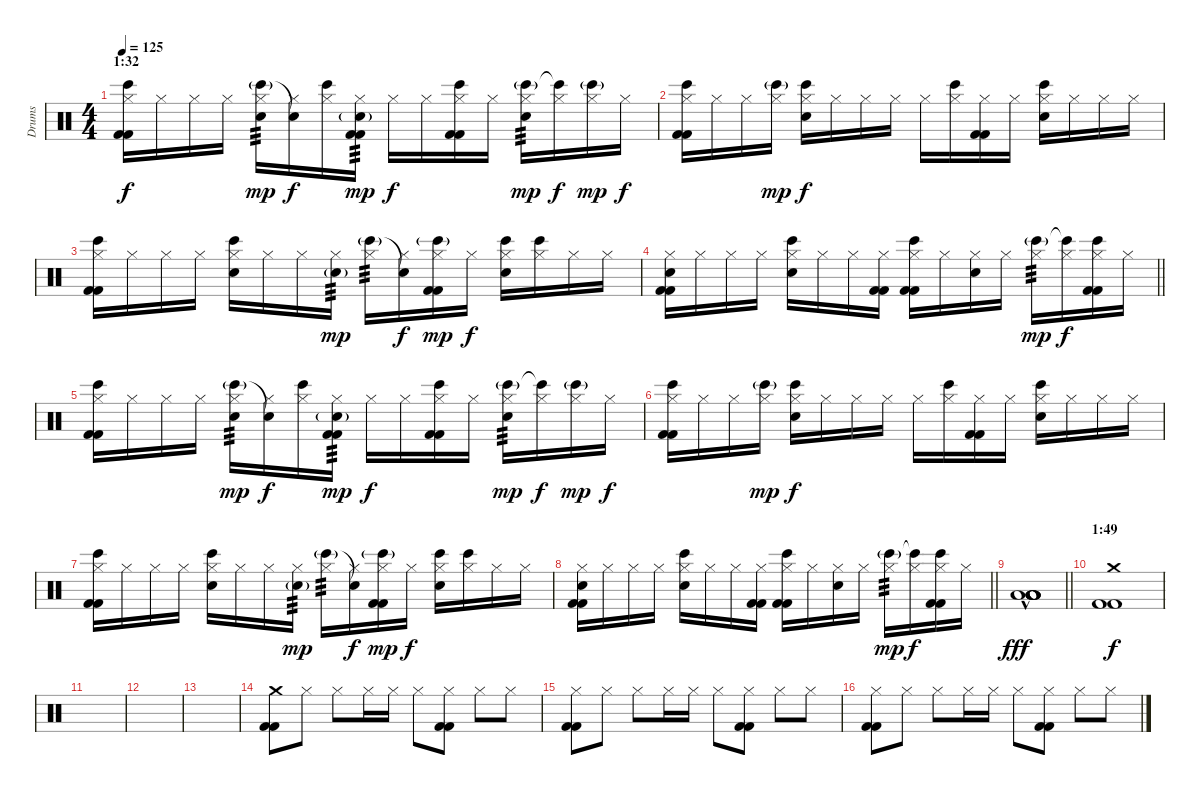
\track ("Drums" "Drums") {instrument percussion}
\staff {score}
\articulation defaults
\ts (4 4)
\section ("" "1:32")
\tempo 125
\clef neutral
\ks c
("Bongo High (hit)" "Hi-Hat (closed)" "Kick (hit) 2" "Kick (hit) 2").16{dy f} "Hi-Hat (closed)".16 "Hi-Hat (closed)".16 "Hi-Hat (closed)".16 ("Bongo High (hit)"{g} "Hi-Hat (closed)" "Electric Snare (hit)").16{tp 3 dy mp} ("Snare (hit)"{t} "Hi-Hat (closed)").16{dy f} ("Bongo High (hit)" "Hi-Hat (closed)").16 ("Hi-Hat (closed)" "Electric Snare (hit)"{g} "Kick (hit) 2" "Kick (hit) 2").16{tp 3 dy mp} "Hi-Hat (closed)".16{dy f} "Hi-Hat (closed)".16 ("Bongo High (hit)" "Hi-Hat (closed)" "Kick (hit) 2" "Kick (hit) 2").16 "Hi-Hat (closed)".16 ("Bongo High (hit)"{g} "Hi-Hat (closed)" "Electric Snare (hit)").16{tp 3 dy mp} ("Bongo High (hit)"{t} "Hi-Hat (closed)").16{dy f} ("Bongo High (hit)"{g} "Hi-Hat (closed)").16{dy mp} "Hi-Hat (closed)".16{dy f} |
("Bongo High (hit)" "Hi-Hat (closed)" "Kick (hit) 2" "Kick (hit) 2").16 "Hi-Hat (closed)".16 "Hi-Hat (closed)".16 ("Bongo High (hit)"{g} "Hi-Hat (closed)").16{dy mp} ("Bongo High (hit)" "Hi-Hat (closed)" "Electric Snare (hit)").16{dy f} "Hi-Hat (closed)".16 "Hi-Hat (closed)".16 "Hi-Hat (closed)".16 "Hi-Hat (closed)".16 ("Bongo High (hit)" "Hi-Hat (closed)").16 ("Hi-Hat (closed)" "Kick (hit) 2" "Kick (hit) 2").16 "Hi-Hat (closed)".16 ("Bongo High (hit)" "Hi-Hat (closed)" "Electric Snare (hit)").16 "Hi-Hat (closed)".16 "Hi-Hat (closed)".16 "Hi-Hat (closed)".16 |
("Bongo High (hit)" "Hi-Hat (closed)" "Kick (hit) 2" "Kick (hit) 2").16 "Hi-Hat (closed)".16 "Hi-Hat (closed)".16 "Hi-Hat (closed)".16 ("Bongo High (hit)" "Hi-Hat (closed)" "Electric Snare (hit)").16 "Hi-Hat (closed)".16 "Hi-Hat (closed)".16 ("Hi-Hat (closed)" "Electric Snare (hit)"{g}).16{tp 3 dy mp} ("Bongo High (hit)"{g} "Hi-Hat (closed)").16{tp 3} ("Snare (hit) 2"{t} "Hi-Hat (closed)").16{dy f} ("Bongo High (hit)"{g} "Hi-Hat (closed)" "Kick (hit) 2" "Kick (hit) 2").16{dy mp} "Hi-Hat (closed)".16{dy f} ("Bongo High (hit)" "Hi-Hat (closed)" "Electric Snare (hit)").16 ("Bongo High (hit)" "Hi-Hat (closed)").16 "Hi-Hat (closed)".16 "Hi-Hat (closed)".16 |
\barLineRight lightlight
("Hand Clap (hit)" "Hi-Hat (closed)" "Kick (hit) 2" "Kick (hit) 2").16 "Hi-Hat (closed)".16 "Hi-Hat (closed)".16 "Hi-Hat (closed)".16 ("Bongo High (hit)" "Hi-Hat (closed)" "Electric Snare (hit)").16 "Hi-Hat (closed)".16 "Hi-Hat (closed)".16 ("Hi-Hat (closed)" "Kick (hit) 2" "Kick (hit) 2").16 ("Bongo High (hit)" "Hi-Hat (closed)" "Kick (hit) 2" "Kick (hit) 2").16 "Hi-Hat (closed)".16 ("Hi-Hat (closed)" "Electric Snare (hit)").16 "Hi-Hat (closed)".16 ("Bongo High (hit)"{g} "Hi-Hat (closed)").16{tp 3 dy mp} ("Bongo High (hit)"{t} "Hi-Hat (closed)").16{dy f} ("Bongo High (hit)" "Hi-Hat (closed)" "Kick (hit) 2" "Kick (hit) 2").16 "Hi-Hat (closed)".16 |
("Bongo High (hit)" "Hi-Hat (closed)" "Kick (hit) 2" "Kick (hit) 2").16 "Hi-Hat (closed)".16 "Hi-Hat (closed)".16 "Hi-Hat (closed)".16 ("Bongo High (hit)"{g} "Hi-Hat (closed)" "Electric Snare (hit)").16{tp 3 dy mp} ("Snare (hit)"{t} "Hi-Hat (closed)").16{dy f} ("Bongo High (hit)" "Hi-Hat (closed)").16 ("Hi-Hat (closed)" "Electric Snare (hit)"{g} "Kick (hit) 2" "Kick (hit) 2").16{tp 3 dy mp} "Hi-Hat (closed)".16{dy f} "Hi-Hat (closed)".16 ("Bongo High (hit)" "Hi-Hat (closed)" "Kick (hit) 2" "Kick (hit) 2").16 "Hi-Hat (closed)".16 ("Bongo High (hit)"{g} "Hi-Hat (closed)" "Electric Snare (hit)").16{tp 3 dy mp} ("Bongo High (hit)"{t} "Hi-Hat (closed)").16{dy f} ("Bongo High (hit)"{g} "Hi-Hat (closed)").16{dy mp} "Hi-Hat (closed)".16{dy f} |
("Bongo High (hit)" "Hi-Hat (closed)" "Kick (hit) 2" "Kick (hit) 2").16 "Hi-Hat (closed)".16 "Hi-Hat (closed)".16 ("Bongo High (hit)"{g} "Hi-Hat (closed)").16{dy mp} ("Bongo High (hit)" "Hi-Hat (closed)" "Electric Snare (hit)").16{dy f} "Hi-Hat (closed)".16 "Hi-Hat (closed)".16 "Hi-Hat (closed)".16 "Hi-Hat (closed)".16 ("Bongo High (hit)" "Hi-Hat (closed)").16 ("Hi-Hat (closed)" "Kick (hit) 2" "Kick (hit) 2").16 "Hi-Hat (closed)".16 ("Bongo High (hit)" "Hi-Hat (closed)" "Electric Snare (hit)").16 "Hi-Hat (closed)".16 "Hi-Hat (closed)".16 "Hi-Hat (closed)".16 |
("Bongo High (hit)" "Hi-Hat (closed)" "Kick (hit) 2" "Kick (hit) 2").16 "Hi-Hat (closed)".16 "Hi-Hat (closed)".16 "Hi-Hat (closed)".16 ("Bongo High (hit)" "Hi-Hat (closed)" "Electric Snare (hit)").16 "Hi-Hat (closed)".16 "Hi-Hat (closed)".16 ("Hi-Hat (closed)" "Electric Snare (hit)"{g}).16{tp 3 dy mp} ("Bongo High (hit)"{g} "Hi-Hat (closed)").16{tp 3} ("Snare (hit) 2"{t} "Hi-Hat (closed)").16{dy f} ("Bongo High (hit)"{g} "Hi-Hat (closed)" "Kick (hit) 2" "Kick (hit) 2").16{dy mp} "Hi-Hat (closed)".16{dy f} ("Bongo High (hit)" "Hi-Hat (closed)" "Electric Snare (hit)").16 ("Bongo High (hit)" "Hi-Hat (closed)").16 "Hi-Hat (closed)".16 "Hi-Hat (closed)".16 |
\barLineRight lightlight
("Hand Clap (hit)" "Hi-Hat (closed)" "Kick (hit) 2" "Kick (hit) 2").16 "Hi-Hat (closed)".16 "Hi-Hat (closed)".16 "Hi-Hat (closed)".16 ("Bongo High (hit)" "Hi-Hat (closed)" "Electric Snare (hit)").16 "Hi-Hat (closed)".16 "Hi-Hat (closed)".16 ("Hi-Hat (closed)" "Kick (hit) 2" "Kick (hit) 2").16 ("Bongo High (hit)" "Hi-Hat (closed)" "Kick (hit) 2" "Kick (hit) 2").16 "Hi-Hat (closed)".16 ("Hi-Hat (closed)" "Electric Snare (hit)").16 "Hi-Hat (closed)".16 ("Bongo High (hit)"{g} "Hi-Hat (closed)").16{tp 3 dy mp} ("Bongo High (hit)"{t} "Hi-Hat (closed)").16{dy f} ("Bongo High (hit)" "Hi-Hat (closed)" "Kick (hit) 2" "Kick (hit) 2").16 "Hi-Hat (closed)".16 |
\barLineRight lightlight
("Low Floor Tom (hit)"{hac} "Low Floor Tom (hit)"{hac} "Low Floor Tom (hit)"{hac} "Low Floor Tom (hit)"{hac} "Low Floor Tom (hit)"{hac} "Low Floor Tom (hit)"{hac}).1{dy fff} |
\section ("" "1:49")
("Crash medium (hit)" "Kick (hit) 2" "Kick (hit) 2").1{dy f} |
|
|
|
("Crash medium (hit)" "Kick (hit) 2" "Kick (hit) 2").8 "Hi-Hat (closed)".8 "Hi-Hat (closed)".8 "Hi-Hat (closed)".16 "Hi-Hat (closed)".16 "Hi-Hat (closed)".8 ("Hi-Hat (closed)" "Kick (hit) 2" "Kick (hit) 2").8 "Hi-Hat (closed)".8 "Hi-Hat (closed)".8 |
("Hi-Hat (closed)" "Kick (hit) 2" "Kick (hit) 2").8 "Hi-Hat (closed)".8 "Hi-Hat (closed)".8 "Hi-Hat (closed)".16 "Hi-Hat (closed)".16 "Hi-Hat (closed)".8 ("Hi-Hat (closed)" "Kick (hit) 2" "Kick (hit) 2").8 "Hi-Hat (closed)".8 "Hi-Hat (closed)".8 |
("Hi-Hat (closed)" "Kick (hit) 2" "Kick (hit) 2").8 "Hi-Hat (closed)".8 "Hi-Hat (closed)".8 "Hi-Hat (closed)".16 "Hi-Hat (closed)".16 "Hi-Hat (closed)".8 ("Hi-Hat (closed)" "Kick (hit) 2" "Kick (hit) 2").8 "Hi-Hat (closed)".8 "Hi-Hat (closed)".8
